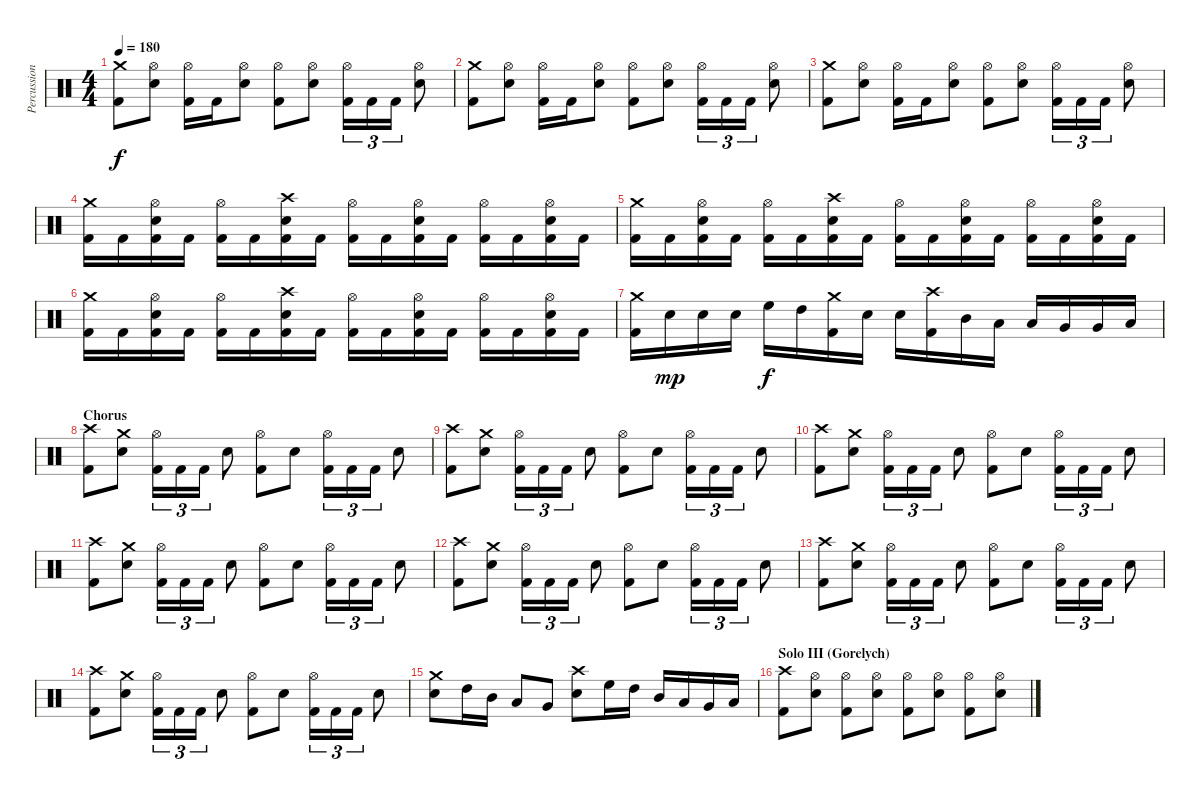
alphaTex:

\track ("Percussion" "Percussion") {instrument percussion}
\staff {score}
\articulation defaults
\ts (4 4)
\tempo 180
\clef neutral
\ks c
("Crash medium (hit)" "Kick (hit) 2").8{dy f} ("Hi-Hat (open)" "Snare (hit) 2").8 ("Hi-Hat (open)" "Kick (hit) 2").16 "Kick (hit) 2".16 ("Hi-Hat (open)" "Snare (hit) 2").8 ("Hi-Hat (open)" "Kick (hit) 2").8 ("Hi-Hat (open)" "Snare (hit) 2").8 ("Hi-Hat (open)" "Kick (hit) 2").16{tu (3 2)} "Kick (hit) 2".16{tu (3 2)} "Kick (hit) 2".16{tu (3 2)} ("Hi-Hat (open)" "Snare (hit) 2").8 |
("Crash medium (hit)" "Kick (hit) 2").8 ("Hi-Hat (open)" "Snare (hit) 2").8 ("Hi-Hat (open)" "Kick (hit) 2").16 "Kick (hit) 2".16 ("Hi-Hat (open)" "Snare (hit) 2").8 ("Hi-Hat (open)" "Kick (hit) 2").8 ("Hi-Hat (open)" "Snare (hit) 2").8 ("Hi-Hat (open)" "Kick (hit) 2").16{tu (3 2)} "Kick (hit) 2".16{tu (3 2)} "Kick (hit) 2".16{tu (3 2)} ("Hi-Hat (open)" "Snare (hit) 2").8 |
("Crash medium (hit)" "Kick (hit) 2").8 ("Hi-Hat (open)" "Snare (hit) 2").8 ("Hi-Hat (open)" "Kick (hit) 2").16 "Kick (hit) 2".16 ("Hi-Hat (open)" "Snare (hit) 2").8 ("Hi-Hat (open)" "Kick (hit) 2").8 ("Hi-Hat (open)" "Snare (hit) 2").8 ("Hi-Hat (open)" "Kick (hit) 2").16{tu (3 2)} "Kick (hit) 2".16{tu (3 2)} "Kick (hit) 2".16{tu (3 2)} ("Hi-Hat (open)" "Snare (hit) 2").8 |
("Crash medium (hit)" "Kick (hit) 2").16 "Kick (hit) 2".16 ("Hi-Hat (open)" "Snare (hit) 2" "Kick (hit) 2").16 "Kick (hit) 2".16 ("Hi-Hat (open)" "Kick (hit) 2").16 "Kick (hit) 2".16 ("Crash high (hit)" "Snare (hit) 2" "Kick (hit) 2").16 "Kick (hit) 2".16 ("Hi-Hat (open)" "Kick (hit) 2").16 "Kick (hit) 2".16 ("Hi-Hat (open)" "Snare (hit) 2" "Kick (hit) 2").16 "Kick (hit) 2".16 ("Hi-Hat (open)" "Kick (hit) 2").16 "Kick (hit) 2".16 ("Hi-Hat (open)" "Snare (hit) 2" "Kick (hit) 2").16 "Kick (hit) 2".16 |
("Crash medium (hit)" "Kick (hit) 2").16 "Kick (hit) 2".16 ("Hi-Hat (open)" "Snare (hit) 2" "Kick (hit) 2").16 "Kick (hit) 2".16 ("Hi-Hat (open)" "Kick (hit) 2").16 "Kick (hit) 2".16 ("Crash high (hit)" "Snare (hit) 2" "Kick (hit) 2").16 "Kick (hit) 2".16 ("Hi-Hat (open)" "Kick (hit) 2").16 "Kick (hit) 2".16 ("Hi-Hat (open)" "Snare (hit) 2" "Kick (hit) 2").16 "Kick (hit) 2".16 ("Hi-Hat (open)" "Kick (hit) 2").16 "Kick (hit) 2".16 ("Hi-Hat (open)" "Snare (hit) 2" "Kick (hit) 2").16 "Kick (hit) 2".16 |
("Crash medium (hit)" "Kick (hit) 2").16 "Kick (hit) 2".16 ("Hi-Hat (open)" "Snare (hit) 2" "Kick (hit) 2").16 "Kick (hit) 2".16 ("Hi-Hat (open)" "Kick (hit) 2").16 "Kick (hit) 2".16 ("Crash high (hit)" "Snare (hit) 2" "Kick (hit) 2").16 "Kick (hit) 2".16 ("Hi-Hat (open)" "Kick (hit) 2").16 "Kick (hit) 2".16 ("Hi-Hat (open)" "Snare (hit) 2" "Kick (hit) 2").16 "Kick (hit) 2".16 ("Hi-Hat (open)" "Kick (hit) 2").16 "Kick (hit) 2".16 ("Hi-Hat (open)" "Snare (hit) 2" "Kick (hit) 2").16 "Kick (hit) 2".16 |
("Crash medium (hit)" "Kick (hit) 2").16 "Snare (hit) 2".16{dy mp} "Snare (hit) 2".16 "Snare (hit) 2".16 "High Floor Tom (hit)".16{dy f} "High Tom (hit)".16 ("Crash medium (hit)" "Kick (hit) 2").16 "Snare (hit) 2".16 "Snare (hit) 2".16 ("Crash high (hit)" "Kick (hit) 2").16 "Mid Tom (hit)".16 "Low Tom (hit)".16 "Low Tom (hit)".16 "Very Low Tom (hit)".16 "Very Low Tom (hit)".16 "Low Floor Tom (hit)".16 |
\section ("" "Chorus")
("Crash high (hit)" "Kick (hit) 2").8 ("Crash medium (hit)" "Snare (hit) 2").8 ("Hi-Hat (open)" "Kick (hit) 2").16{tu (3 2)} "Kick (hit) 2".16{tu (3 2)} "Kick (hit) 2".16{tu (3 2)} "Snare (hit) 2".8 ("Hi-Hat (open)" "Kick (hit) 2").8 "Snare (hit) 2".8 ("Hi-Hat (open)" "Kick (hit) 2").16{tu (3 2)} "Kick (hit) 2".16{tu (3 2)} "Kick (hit) 2".16{tu (3 2)} "Snare (hit) 2".8 |
("Crash high (hit)" "Kick (hit) 2").8 ("Crash medium (hit)" "Snare (hit) 2").8 ("Hi-Hat (open)" "Kick (hit) 2").16{tu (3 2)} "Kick (hit) 2".16{tu (3 2)} "Kick (hit) 2".16{tu (3 2)} "Snare (hit) 2".8 ("Hi-Hat (open)" "Kick (hit) 2").8 "Snare (hit) 2".8 ("Hi-Hat (open)" "Kick (hit) 2").16{tu (3 2)} "Kick (hit) 2".16{tu (3 2)} "Kick (hit) 2".16{tu (3 2)} "Snare (hit) 2".8 |
("Crash high (hit)" "Kick (hit) 2").8 ("Crash medium (hit)" "Snare (hit) 2").8 ("Hi-Hat (open)" "Kick (hit) 2").16{tu (3 2)} "Kick (hit) 2".16{tu (3 2)} "Kick (hit) 2".16{tu (3 2)} "Snare (hit) 2".8 ("Hi-Hat (open)" "Kick (hit) 2").8 "Snare (hit) 2".8 ("Hi-Hat (open)" "Kick (hit) 2").16{tu (3 2)} "Kick (hit) 2".16{tu (3 2)} "Kick (hit) 2".16{tu (3 2)} "Snare (hit) 2".8 |
("Crash high (hit)" "Kick (hit) 2").8 ("Crash medium (hit)" "Snare (hit) 2").8 ("Hi-Hat (open)" "Kick (hit) 2").16{tu (3 2)} "Kick (hit) 2".16{tu (3 2)} "Kick (hit) 2".16{tu (3 2)} "Snare (hit) 2".8 ("Hi-Hat (open)" "Kick (hit) 2").8 "Snare (hit) 2".8 ("Hi-Hat (open)" "Kick (hit) 2").16{tu (3 2)} "Kick (hit) 2".16{tu (3 2)} "Kick (hit) 2".16{tu (3 2)} "Snare (hit) 2".8 |
("Crash high (hit)" "Kick (hit) 2").8 ("Crash medium (hit)" "Snare (hit) 2").8 ("Hi-Hat (open)" "Kick (hit) 2").16{tu (3 2)} "Kick (hit) 2".16{tu (3 2)} "Kick (hit) 2".16{tu (3 2)} "Snare (hit) 2".8 ("Hi-Hat (open)" "Kick (hit) 2").8 "Snare (hit) 2".8 ("Hi-Hat (open)" "Kick (hit) 2").16{tu (3 2)} "Kick (hit) 2".16{tu (3 2)} "Kick (hit) 2".16{tu (3 2)} "Snare (hit) 2".8 |
("Crash high (hit)" "Kick (hit) 2").8 ("Crash medium (hit)" "Snare (hit) 2").8 ("Hi-Hat (open)" "Kick (hit) 2").16{tu (3 2)} "Kick (hit) 2".16{tu (3 2)} "Kick (hit) 2".16{tu (3 2)} "Snare (hit) 2".8 ("Hi-Hat (open)" "Kick (hit) 2").8 "Snare (hit) 2".8 ("Hi-Hat (open)" "Kick (hit) 2").16{tu (3 2)} "Kick (hit) 2".16{tu (3 2)} "Kick (hit) 2".16{tu (3 2)} "Snare (hit) 2".8 |
("Crash high (hit)" "Kick (hit) 2").8 ("Crash medium (hit)" "Snare (hit) 2").8 ("Hi-Hat (open)" "Kick (hit) 2").16{tu (3 2)} "Kick (hit) 2".16{tu (3 2)} "Kick (hit) 2".16{tu (3 2)} "Snare (hit) 2".8 ("Hi-Hat (open)" "Kick (hit) 2").8 "Snare (hit) 2".8 ("Hi-Hat (open)" "Kick (hit) 2").16{tu (3 2)} "Kick (hit) 2".16{tu (3 2)} "Kick (hit) 2".16{tu (3 2)} "Snare (hit) 2".8 |
("Snare (hit) 2" "Crash medium (hit)").8 "High Tom (hit)".16 "Mid Tom (hit)".16 "Low Tom (hit)".8 "Very Low Tom (hit)".8 ("Snare (hit) 2" "Crash high (hit)").8 "High Floor Tom (hit)".16 "High Tom (hit)".16 "Mid Tom (hit)".16 "Low Tom (hit)".16 "Very Low Tom (hit)".16 "Low Floor Tom (hit)".16 |
\section ("" "Solo III (Gorelych)")
("Crash high (hit)" "Kick (hit) 2").8 ("Hi-Hat (open)" "Snare (hit) 2").8 ("Hi-Hat (open)" "Kick (hit) 2").8 ("Hi-Hat (open)" "Snare (hit) 2").8 ("Hi-Hat (open)" "Kick (hit) 2").8 ("Hi-Hat (open)" "Snare (hit) 2").8 ("Hi-Hat (open)" "Kick (hit) 2").8 ("Hi-Hat (open)" "Snare (hit) 2").8
